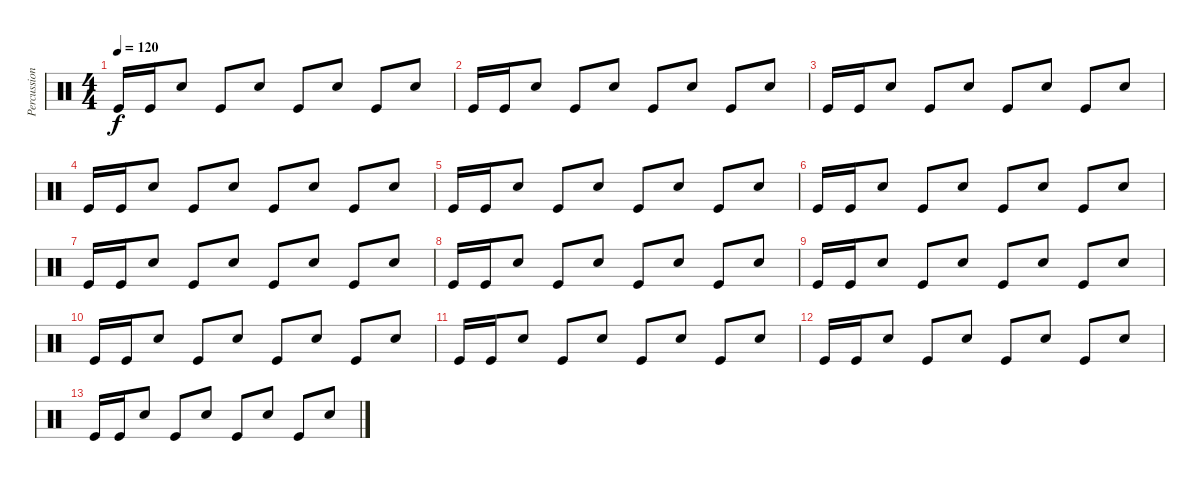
\track ("Percussion" "Percussion") {instrument percussion}
\staff {score}
\articulation defaults
\ts (4 4)
\tempo 120
\clef neutral
\ks c "Kick (hit)".16{dy f} "Kick (hit)".16 "Snare (hit) 2".8 "Kick (hit)".8 "Snare (hit) 2".8 "Kick (hit)".8 "Snare (hit) 2".8 "Kick (hit)".8 "Snare (hit) 2".8
|
"Kick (hit)".16 "Kick (hit)".16 "Snare (hit) 2".8 "Kick (hit)".8 "Snare (hit) 2".8 "Kick (hit)".8 "Snare (hit) 2".8 "Kick (hit)".8 "Snare (hit) 2".8 |
"Kick (hit)".16 "Kick (hit)".16 "Snare (hit) 2".8 "Kick (hit)".8 "Snare (hit) 2".8 "Kick (hit)".8 "Snare (hit) 2".8 "Kick (hit)".8 "Snare (hit) 2".8 |
"Kick (hit)".16 "Kick (hit)".16 "Snare (hit) 2".8 "Kick (hit)".8 "Snare (hit) 2".8 "Kick (hit)".8 "Snare (hit) 2".8 "Kick (hit)".8 "Snare (hit) 2".8 |
"Kick (hit)".16 "Kick (hit)".16 "Snare (hit) 2".8 "Kick (hit)".8 "Snare (hit) 2".8 "Kick (hit)".8 "Snare (hit) 2".8 "Kick (hit)".8 "Snare (hit) 2".8 |
"Kick (hit)".16 "Kick (hit)".16 "Snare (hit) 2".8 "Kick (hit)".8 "Snare (hit) 2".8 "Kick (hit)".8 "Snare (hit) 2".8 "Kick (hit)".8 "Snare (hit) 2".8 |
"Kick (hit)".16 "Kick (hit)".16 "Snare (hit) 2".8 "Kick (hit)".8 "Snare (hit) 2".8 "Kick (hit)".8 "Snare (hit) 2".8 "Kick (hit)".8 "Snare (hit) 2".8 |
"Kick (hit)".16 "Kick (hit)".16 "Snare (hit) 2".8 "Kick (hit)".8 "Snare (hit) 2".8 "Kick (hit)".8 "Snare (hit) 2".8 "Kick (hit)".8 "Snare (hit) 2".8 |
"Kick (hit)".16 "Kick (hit)".16 "Snare (hit) 2".8 "Kick (hit)".8 "Snare (hit) 2".8 "Kick (hit)".8 "Snare (hit) 2".8 "Kick (hit)".8 "Snare (hit) 2".8 |
"Kick (hit)".16 "Kick (hit)".16 "Snare (hit) 2".8 "Kick (hit)".8 "Snare (hit) 2".8 "Kick (hit)".8 "Snare (hit) 2".8 "Kick (hit)".8 "Snare (hit) 2".8 |
"Kick (hit)".16 "Kick (hit)".16 "Snare (hit) 2".8 "Kick (hit)".8 "Snare (hit) 2".8 "Kick (hit)".8 "Snare (hit) 2".8 "Kick (hit)".8 "Snare (hit) 2".8 |
"Kick (hit)".16 "Kick (hit)".16 "Snare (hit) 2".8 "Kick (hit)".8 "Snare (hit) 2".8 "Kick (hit)".8 "Snare (hit) 2".8 "Kick (hit)".8 "Snare (hit) 2".8 |
"Kick (hit)".16 "Kick (hit)".16 "Snare (hit) 2".8 "Kick (hit)".8 "Snare (hit) 2".8 "Kick (hit)".8 "Snare (hit) 2".8 "Kick (hit)".8 "Snare (hit) 2".8
